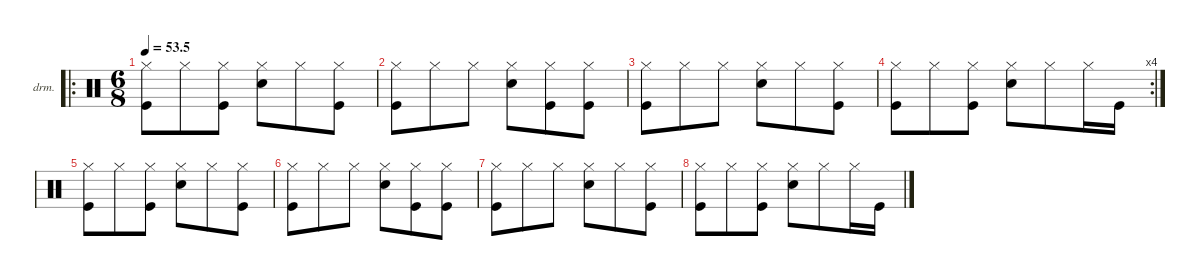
\defaultSystemsLayout 4
\hideDynamics
\bracketExtendMode nobrackets
\firstSystemTrackNameOrientation horizontal
\otherSystemsTrackNameOrientation horizontal
\track ("Drumkit" "drm.") {defaultSystemsLayout 2 instrument percussion}
\staff {score}
\articulation defaults
\ro
\ts (6 8)
\tempo
53.5
\accidentals auto
\clef neutral
\ottava regular
\simile none
\scale
1.02131
\ks c
("Hi-Hat (closed)" "Kick (hit)").8{dy mf beam Down} "Hi-Hat (closed)".8{beam Down} ("Hi-Hat (closed)" "Kick (hit)").8{beam Down} ("Hi-Hat (closed)" "Snare (hit) 2").8{beam Down} "Hi-Hat (closed)".8{beam Down} ("Hi-Hat (closed)" "Kick (hit)").8{beam Down} |
\scale
0.978695 ("Hi-Hat (closed)" "Kick (hit)").8{beam Down} "Hi-Hat (closed)".8{beam Down} "Hi-Hat (closed)".8{beam Down} ("Hi-Hat (closed)" "Snare (hit) 2").8{beam Down} ("Hi-Hat (closed)" "Kick (hit)").8{beam Down} ("Hi-Hat (closed)" "Kick (hit)").8{beam Down} |
\scale
1.02131 ("Hi-Hat (closed)" "Kick (hit)").8{beam Down} "Hi-Hat (closed)".8{beam Down} "Hi-Hat (closed)".8{beam Down} ("Hi-Hat (closed)" "Snare (hit) 2").8{beam Down} "Hi-Hat (closed)".8{beam Down} ("Hi-Hat (closed)" "Kick (hit)").8{beam Down} |
\rc 4
\scale
0.978695 ("Hi-Hat (closed)" "Kick (hit)").8{beam Down} "Hi-Hat (closed)".8{beam Down} ("Hi-Hat (closed)" "Kick (hit)").8{beam Down} ("Hi-Hat (closed)" "Snare (hit) 2").8{beam Down} "Hi-Hat (closed)".8{beam Down} "Hi-Hat (closed)".16{beam Down} "Kick (hit)".16{beam Down} |
\scale
1.02131 ("Hi-Hat (closed)" "Kick (hit)").8{beam Down} "Hi-Hat (closed)".8{beam Down} ("Hi-Hat (closed)" "Kick (hit)").8{beam Down} ("Hi-Hat (closed)" "Snare (hit) 2").8{beam Down} "Hi-Hat (closed)".8{beam Down} ("Hi-Hat (closed)" "Kick (hit)").8{beam Down} |
\scale
0.978695 ("Hi-Hat (closed)" "Kick (hit)").8{beam Down} "Hi-Hat (closed)".8{beam Down} "Hi-Hat (closed)".8{beam Down} ("Hi-Hat (closed)" "Snare (hit) 2").8{beam Down} ("Hi-Hat (closed)" "Kick (hit)").8{beam Down} ("Hi-Hat (closed)" "Kick (hit)").8{beam Down} |
\scale
1.02131 ("Hi-Hat (closed)" "Kick (hit)").8{beam Down} "Hi-Hat (closed)".8{beam Down} "Hi-Hat (closed)".8{beam Down} ("Hi-Hat (closed)" "Snare (hit) 2").8{beam Down} "Hi-Hat (closed)".8{beam Down} ("Hi-Hat (closed)" "Kick (hit)").8{beam Down} |
\scale
0.978695 ("Hi-Hat (closed)" "Kick (hit)").8{beam Down} "Hi-Hat (closed)".8{beam Down} ("Hi-Hat (closed)" "Kick (hit)").8{beam Down} ("Hi-Hat (closed)" "Snare (hit) 2").8{beam Down} "Hi-Hat (closed)".8{beam Down} "Hi-Hat (closed)".16{beam Down} "Kick (hit)".16{beam Down}
